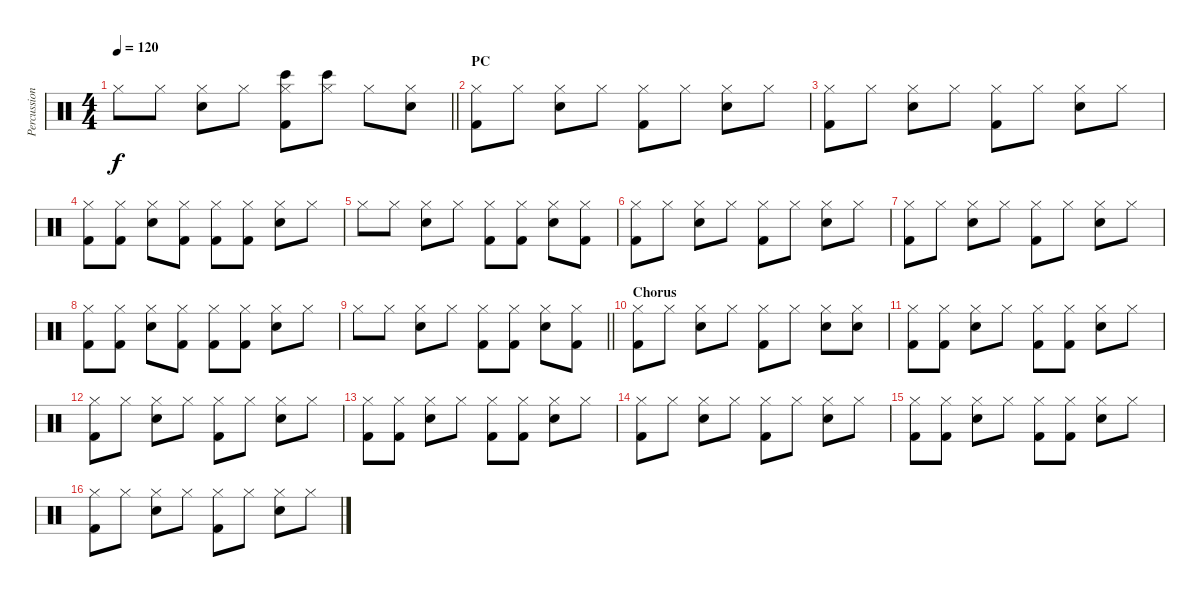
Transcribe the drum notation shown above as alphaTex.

\track ("Percussion" "Percussion") {instrument percussion}
\staff {score}
\articulation defaults
\ts (4 4)
\tempo 120
\clef neutral
\barLineRight lightlight
\ks c "Hi-Hat (closed)".8{dy f} "Hi-Hat (closed)".8
("Hi-Hat (closed)" "Snare (hit) 2").8 "Hi-Hat (closed)".8 ("Hi-Hat (closed)" "Bongo High (hit)" "Kick (hit) 2").8 ("Hi-Hat (closed)" "Bongo High (hit)").8 "Hi-Hat (closed)".8 ("Hi-Hat (closed)" "Snare (hit) 2").8 |
\section ("" "PC")
("Hi-Hat (closed)" "Kick (hit) 2").8 "Hi-Hat (closed)".8 ("Hi-Hat (closed)" "Electric Snare (hit)").8 "Hi-Hat (closed)".8 ("Hi-Hat (closed)" "Kick (hit) 2").8 "Hi-Hat (closed)".8 ("Hi-Hat (closed)" "Electric Snare (hit)").8 "Hi-Hat (closed)".8 |
("Hi-Hat (closed)" "Kick (hit) 2").8 "Hi-Hat (closed)".8 ("Hi-Hat (closed)" "Electric Snare (hit)").8 "Hi-Hat (closed)".8 ("Hi-Hat (closed)" "Kick (hit) 2").8 "Hi-Hat (closed)".8 ("Hi-Hat (closed)" "Electric Snare (hit)").8 "Hi-Hat (closed)".8 |
("Hi-Hat (closed)" "Kick (hit) 2").8 ("Hi-Hat (closed)" "Kick (hit) 2").8 ("Hi-Hat (closed)" "Electric Snare (hit)").8 ("Hi-Hat (closed)" "Kick (hit) 2").8 ("Hi-Hat (closed)" "Kick (hit) 2").8 ("Hi-Hat (closed)" "Kick (hit) 2").8 ("Hi-Hat (closed)" "Electric Snare (hit)").8 "Hi-Hat (closed)".8 |
"Hi-Hat (closed)".8 "Hi-Hat (closed)".8 ("Hi-Hat (closed)" "Electric Snare (hit)").8 "Hi-Hat (closed)".8 ("Hi-Hat (closed)" "Kick (hit) 2").8 ("Hi-Hat (closed)" "Kick (hit) 2").8 ("Hi-Hat (closed)" "Electric Snare (hit)").8 ("Hi-Hat (closed)" "Kick (hit) 2").8 |
("Hi-Hat (closed)" "Kick (hit) 2").8 "Hi-Hat (closed)".8 ("Hi-Hat (closed)" "Electric Snare (hit)").8 "Hi-Hat (closed)".8 ("Hi-Hat (closed)" "Kick (hit) 2").8 "Hi-Hat (closed)".8 ("Hi-Hat (closed)" "Electric Snare (hit)").8 "Hi-Hat (closed)".8 |
("Hi-Hat (closed)" "Kick (hit) 2").8 "Hi-Hat (closed)".8 ("Hi-Hat (closed)" "Electric Snare (hit)").8 "Hi-Hat (closed)".8 ("Hi-Hat (closed)" "Kick (hit) 2").8 "Hi-Hat (closed)".8 ("Hi-Hat (closed)" "Electric Snare (hit)").8 "Hi-Hat (closed)".8 |
("Hi-Hat (closed)" "Kick (hit) 2").8 ("Hi-Hat (closed)" "Kick (hit) 2").8 ("Hi-Hat (closed)" "Electric Snare (hit)").8 ("Hi-Hat (closed)" "Kick (hit) 2").8 ("Hi-Hat (closed)" "Kick (hit) 2").8 ("Hi-Hat (closed)" "Kick (hit) 2").8 ("Hi-Hat (closed)" "Electric Snare (hit)").8 "Hi-Hat (closed)".8 |
\barLineRight lightlight "Hi-Hat (closed)".8 "Hi-Hat (closed)".8
("Hi-Hat (closed)" "Electric Snare (hit)").8 "Hi-Hat (closed)".8 ("Hi-Hat (closed)" "Kick (hit) 2").8 ("Hi-Hat (closed)" "Kick (hit) 2").8 ("Hi-Hat (closed)" "Electric Snare (hit)").8 ("Hi-Hat (closed)" "Kick (hit) 2").8 |
\section ("" "Chorus")
("Hi-Hat (closed)" "Kick (hit) 2").8 "Hi-Hat (closed)".8 ("Hi-Hat (closed)" "Electric Snare (hit)").8 "Hi-Hat (closed)".8 ("Hi-Hat (closed)" "Kick (hit) 2").8 "Hi-Hat (closed)".8 ("Hi-Hat (closed)" "Electric Snare (hit)").8 ("Hi-Hat (closed)" "Electric Snare (hit)").8 |
("Hi-Hat (closed)" "Kick (hit) 2").8 ("Hi-Hat (closed)" "Kick (hit) 2").8 ("Hi-Hat (closed)" "Electric Snare (hit)").8 "Hi-Hat (closed)".8 ("Hi-Hat (closed)" "Kick (hit) 2").8 ("Hi-Hat (closed)" "Kick (hit) 2").8 ("Hi-Hat (closed)" "Electric Snare (hit)").8 "Hi-Hat (closed)".8 |
("Hi-Hat (closed)" "Kick (hit) 2").8 "Hi-Hat (closed)".8 ("Hi-Hat (closed)" "Electric Snare (hit)").8 "Hi-Hat (closed)".8 ("Hi-Hat (closed)" "Kick (hit) 2").8 "Hi-Hat (closed)".8 ("Hi-Hat (closed)" "Electric Snare (hit)").8 "Hi-Hat (closed)".8 |
("Hi-Hat (closed)" "Kick (hit) 2").8 ("Hi-Hat (closed)" "Kick (hit) 2").8 ("Hi-Hat (closed)" "Electric Snare (hit)").8 "Hi-Hat (closed)".8 ("Hi-Hat (closed)" "Kick (hit) 2").8 ("Hi-Hat (closed)" "Kick (hit) 2").8 ("Hi-Hat (closed)" "Electric Snare (hit)").8 "Hi-Hat (closed)".8 |
("Hi-Hat (closed)" "Kick (hit) 2").8 "Hi-Hat (closed)".8 ("Hi-Hat (closed)" "Electric Snare (hit)").8 "Hi-Hat (closed)".8 ("Hi-Hat (closed)" "Kick (hit) 2").8 "Hi-Hat (closed)".8 ("Hi-Hat (closed)" "Electric Snare (hit)").8 "Hi-Hat (closed)".8 |
("Hi-Hat (closed)" "Kick (hit) 2").8 ("Hi-Hat (closed)" "Kick (hit) 2").8 ("Hi-Hat (closed)" "Electric Snare (hit)").8 "Hi-Hat (closed)".8 ("Hi-Hat (closed)" "Kick (hit) 2").8 ("Hi-Hat (closed)" "Kick (hit) 2").8 ("Hi-Hat (closed)" "Electric Snare (hit)").8 "Hi-Hat (closed)".8 |
("Hi-Hat (closed)" "Kick (hit) 2").8 "Hi-Hat (closed)".8 ("Hi-Hat (closed)" "Electric Snare (hit)").8 "Hi-Hat (closed)".8 ("Hi-Hat (closed)" "Kick (hit) 2").8 "Hi-Hat (closed)".8 ("Hi-Hat (closed)" "Electric Snare (hit)").8 "Hi-Hat (closed)".8
